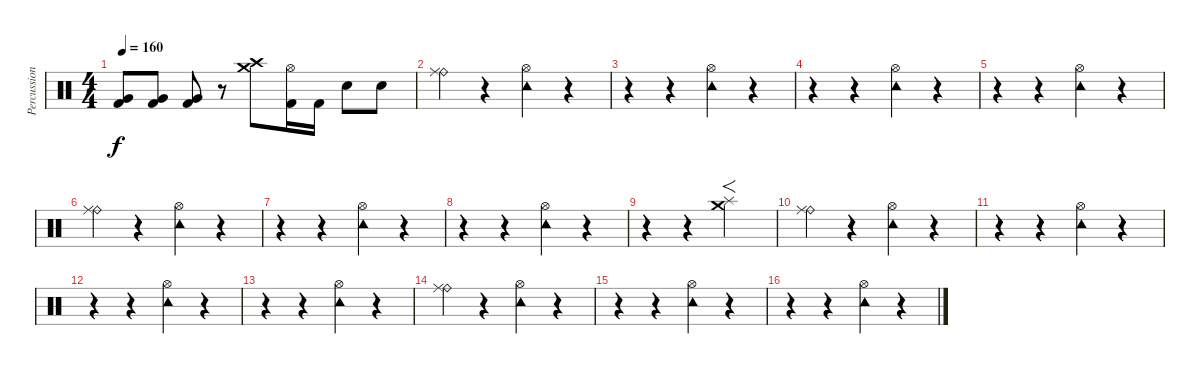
\track ("Percussion" "Percussion") {instrument percussion}
\staff {score}
\articulation defaults
\ts (4 4)
\tempo 160
\clef neutral
\ks c
("Very Low Tom (hit)" "Kick (hit) 2").8{dy f} ("Very Low Tom (hit)" "Kick (hit) 2").8 ("Very Low Tom (hit)" "Kick (hit) 2").8 r.8 ("Crash medium (hit)" "Crash high (hit)").8 ("Hi-Hat (open)" "Kick (hit) 2").16 "Kick (hit) 2".16 "Electric Snare (hit)".8 "Electric Snare (hit)".8 |
("Ride (bell)" "Ride (middle)").4 r.4 ("Tambourine (hit)" "Hi-Hat (open)").4 r.4 |
r.4 r.4 ("Tambourine (hit)" "Hi-Hat (open)").4 r.4 |
r.4 r.4 ("Tambourine (hit)" "Hi-Hat (open)").4 r.4 |
r.4 r.4 ("Tambourine (hit)" "Hi-Hat (open)").4 r.4 |
("Ride (bell)" "Ride (middle)").4 r.4 ("Tambourine (hit)" "Hi-Hat (open)").4 r.4 |
r.4 r.4 ("Tambourine (hit)" "Hi-Hat (open)").4 r.4 |
r.4 r.4 ("Tambourine (hit)" "Hi-Hat (open)").4 r.4 |
r.4 r.4 ("Splash (hit)" "Crash medium (hit)").2{f} |
("Ride (bell)" "Ride (middle)").4 r.4 ("Tambourine (hit)" "Hi-Hat (open)").4 r.4 |
r.4 r.4 ("Tambourine (hit)" "Hi-Hat (open)").4 r.4 |
r.4 r.4 ("Tambourine (hit)" "Hi-Hat (open)").4 r.4 |
r.4 r.4 ("Tambourine (hit)" "Hi-Hat (open)").4 r.4 |
("Ride (bell)" "Ride (middle)").4 r.4 ("Tambourine (hit)" "Hi-Hat (open)").4 r.4 |
r.4 r.4 ("Tambourine (hit)" "Hi-Hat (open)").4 r.4 |
r.4 r.4 ("Tambourine (hit)" "Hi-Hat (open)").4 r.4
